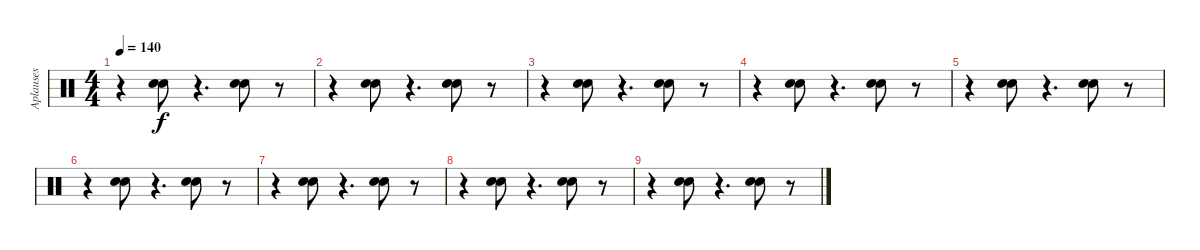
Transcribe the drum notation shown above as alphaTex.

\track ("Aplauses" "Aplauses") {instrument percussion}
\staff {score}
\articulation defaults
\ts (4 4)
\tempo 140
\clef neutral
\ks c
r.4{dy f} ("Hand Clap (hit)" "Hand Clap (hit)").8 r.4{d} ("Hand Clap (hit)" "Hand Clap (hit)").8 r.8 |
r.4 ("Hand Clap (hit)" "Hand Clap (hit)").8 r.4{d} ("Hand Clap (hit)" "Hand Clap (hit)").8 r.8 |
r.4 ("Hand Clap (hit)" "Hand Clap (hit)").8 r.4{d} ("Hand Clap (hit)" "Hand Clap (hit)").8 r.8 |
r.4 ("Hand Clap (hit)" "Hand Clap (hit)").8 r.4{d} ("Hand Clap (hit)" "Hand Clap (hit)").8 r.8 |
r.4 ("Hand Clap (hit)" "Hand Clap (hit)").8 r.4{d} ("Hand Clap (hit)" "Hand Clap (hit)").8 r.8 |
r.4 ("Hand Clap (hit)" "Hand Clap (hit)").8 r.4{d} ("Hand Clap (hit)" "Hand Clap (hit)").8 r.8 |
r.4 ("Hand Clap (hit)" "Hand Clap (hit)").8 r.4{d} ("Hand Clap (hit)" "Hand Clap (hit)").8 r.8 |
r.4 ("Hand Clap (hit)" "Hand Clap (hit)").8 r.4{d} ("Hand Clap (hit)" "Hand Clap (hit)").8 r.8 |
r.4 ("Hand Clap (hit)" "Hand Clap (hit)").8 r.4{d} ("Hand Clap (hit)" "Hand Clap (hit)").8 r.8
